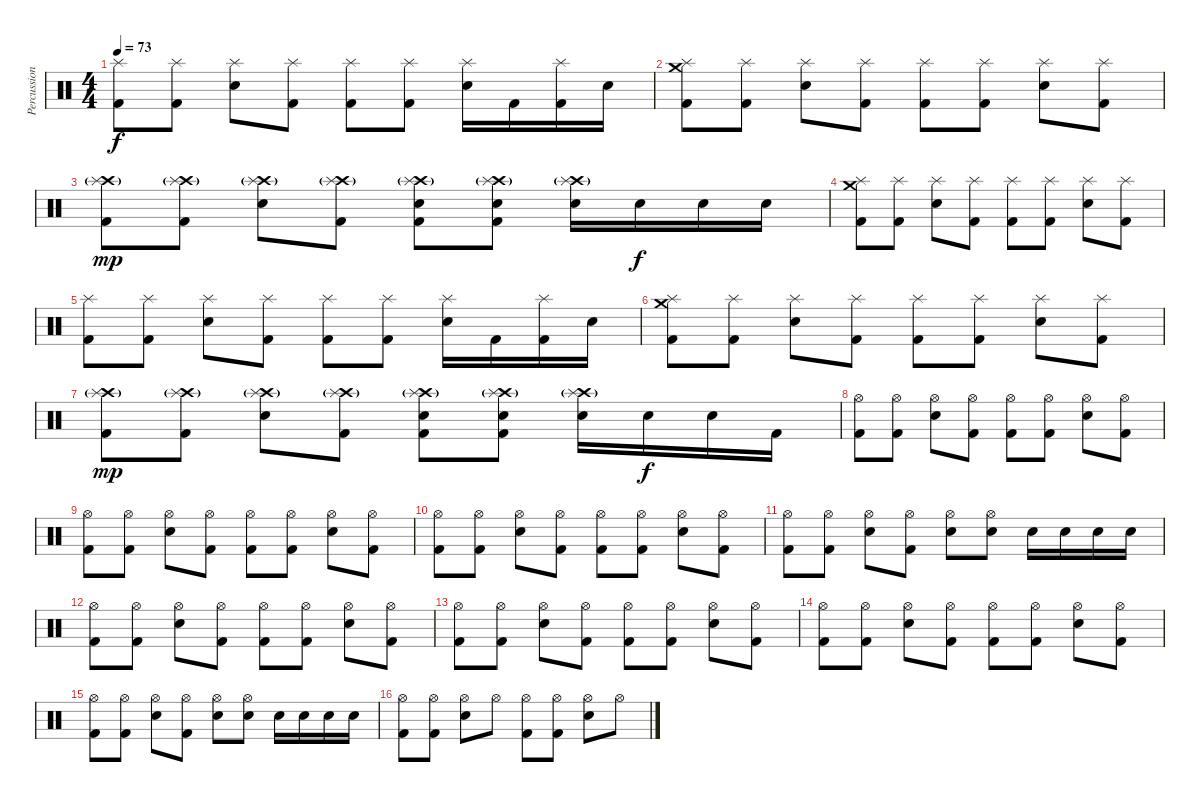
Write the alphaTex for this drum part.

\track ("Percussions" "Percussion") {instrument percussion}
\staff {score}
\articulation defaults
\ts (4 4)
\tempo 73
\clef neutral
\ks c
("Splash (hit)" "Kick (hit) 2").8{dy f} ("Splash (hit)" "Kick (hit) 2").8 ("Splash (hit)" "Snare (hit) 2").8 ("Splash (hit)" "Kick (hit) 2").8 ("Splash (hit)" "Kick (hit) 2").8 ("Splash (hit)" "Kick (hit) 2").8 ("Splash (hit)" "Snare (hit) 2").16 "Kick (hit) 2".16 ("Splash (hit)" "Kick (hit) 2").16 "Electric Snare (hit)".16 |
("Crash medium (hit)" "Splash (hit)" "Kick (hit) 2").8 ("Splash (hit)" "Kick (hit) 2").8 ("Splash (hit)" "Snare (hit) 2").8 ("Splash (hit)" "Kick (hit) 2").8 ("Splash (hit)" "Kick (hit) 2").8 ("Splash (hit)" "Kick (hit) 2").8 ("Splash (hit)" "Snare (hit) 2").8 ("Splash (hit)" "Kick (hit) 2").8 |
("Crash high (hit)"{g} "Splash (hit)" "Kick (hit) 2").8{dy mp} ("Crash high (hit)"{g} "Splash (hit)" "Kick (hit) 2").8 ("Crash high (hit)"{g} "Splash (hit)" "Snare (hit) 2").8 ("Crash high (hit)"{g} "Splash (hit)" "Kick (hit) 2").8 ("Crash high (hit)"{g} "Splash (hit)" "Electric Snare (hit)" "Kick (hit) 2").8 ("Crash high (hit)"{g} "Splash (hit)" "Electric Snare (hit)" "Kick (hit) 2").8 ("Crash high (hit)"{g} "Splash (hit)" "Electric Snare (hit)").16 "Electric Snare (hit)".16{dy f} "Electric Snare (hit)".16 "Electric Snare (hit)".16 |
("Crash medium (hit)" "Splash (hit)" "Kick (hit) 2").8 ("Splash (hit)" "Kick (hit) 2").8 ("Splash (hit)" "Snare (hit) 2").8 ("Splash (hit)" "Kick (hit) 2").8 ("Splash (hit)" "Kick (hit) 2").8 ("Splash (hit)" "Kick (hit) 2").8 ("Splash (hit)" "Snare (hit) 2").8 ("Splash (hit)" "Kick (hit) 2").8 |
("Splash (hit)" "Kick (hit) 2").8 ("Splash (hit)" "Kick (hit) 2").8 ("Splash (hit)" "Snare (hit) 2").8 ("Splash (hit)" "Kick (hit) 2").8 ("Splash (hit)" "Kick (hit) 2").8 ("Splash (hit)" "Kick (hit) 2").8 ("Splash (hit)" "Snare (hit) 2").16 "Kick (hit) 2".16 ("Splash (hit)" "Kick (hit) 2").16 "Electric Snare (hit)".16 |
("Crash medium (hit)" "Splash (hit)" "Kick (hit) 2").8 ("Splash (hit)" "Kick (hit) 2").8 ("Splash (hit)" "Snare (hit) 2").8 ("Splash (hit)" "Kick (hit) 2").8 ("Splash (hit)" "Kick (hit) 2").8 ("Splash (hit)" "Kick (hit) 2").8 ("Splash (hit)" "Snare (hit) 2").8 ("Splash (hit)" "Kick (hit) 2").8 |
("Crash high (hit)"{g} "Splash (hit)" "Kick (hit) 2").8{dy mp} ("Crash high (hit)"{g} "Splash (hit)" "Kick (hit) 2").8 ("Crash high (hit)"{g} "Splash (hit)" "Snare (hit) 2").8 ("Crash high (hit)"{g} "Splash (hit)" "Kick (hit) 2").8 ("Crash high (hit)"{g} "Splash (hit)" "Electric Snare (hit)" "Kick (hit) 2").8 ("Crash high (hit)"{g} "Splash (hit)" "Electric Snare (hit)" "Kick (hit) 2").8 ("Crash high (hit)"{g} "Splash (hit)" "Electric Snare (hit)").16 "Electric Snare (hit)".16{dy f} "Electric Snare (hit)".16 "Kick (hit) 2".16 |
("Hi-Hat (open)" "Kick (hit) 2").8 ("Hi-Hat (open)" "Kick (hit) 2").8 ("Hi-Hat (open)" "Snare (hit) 2").8 ("Hi-Hat (open)" "Kick (hit) 2").8 ("Hi-Hat (open)" "Kick (hit) 2").8 ("Hi-Hat (open)" "Kick (hit) 2").8 ("Hi-Hat (open)" "Snare (hit) 2").8 ("Hi-Hat (open)" "Kick (hit) 2").8 |
("Hi-Hat (open)" "Kick (hit) 2").8 ("Hi-Hat (open)" "Kick (hit) 2").8 ("Hi-Hat (open)" "Snare (hit) 2").8 ("Hi-Hat (open)" "Kick (hit) 2").8 ("Hi-Hat (open)" "Kick (hit) 2").8 ("Hi-Hat (open)" "Kick (hit) 2").8 ("Hi-Hat (open)" "Snare (hit) 2").8 ("Hi-Hat (open)" "Kick (hit) 2").8 |
("Hi-Hat (open)" "Kick (hit) 2").8 ("Hi-Hat (open)" "Kick (hit) 2").8 ("Hi-Hat (open)" "Snare (hit) 2").8 ("Hi-Hat (open)" "Kick (hit) 2").8 ("Hi-Hat (open)" "Kick (hit) 2").8 ("Hi-Hat (open)" "Kick (hit) 2").8 ("Hi-Hat (open)" "Snare (hit) 2").8 ("Hi-Hat (open)" "Kick (hit) 2").8 |
("Hi-Hat (open)" "Kick (hit) 2").8 ("Hi-Hat (open)" "Kick (hit) 2").8 ("Hi-Hat (open)" "Snare (hit) 2").8 ("Hi-Hat (open)" "Kick (hit) 2").8 ("Hi-Hat (open)" "Electric Snare (hit)").8 ("Hi-Hat (open)" "Electric Snare (hit)").8 "Electric Snare (hit)".16 "Electric Snare (hit)".16 "Electric Snare (hit)".16 "Electric Snare (hit)".16 |
("Hi-Hat (open)" "Kick (hit) 2").8 ("Hi-Hat (open)" "Kick (hit) 2").8 ("Hi-Hat (open)" "Snare (hit) 2").8 ("Hi-Hat (open)" "Kick (hit) 2").8 ("Hi-Hat (open)" "Kick (hit) 2").8 ("Hi-Hat (open)" "Kick (hit) 2").8 ("Hi-Hat (open)" "Snare (hit) 2").8 ("Hi-Hat (open)" "Kick (hit) 2").8 |
("Hi-Hat (open)" "Kick (hit) 2").8 ("Hi-Hat (open)" "Kick (hit) 2").8 ("Hi-Hat (open)" "Snare (hit) 2").8 ("Hi-Hat (open)" "Kick (hit) 2").8 ("Hi-Hat (open)" "Kick (hit) 2").8 ("Hi-Hat (open)" "Kick (hit) 2").8 ("Hi-Hat (open)" "Snare (hit) 2").8 ("Hi-Hat (open)" "Kick (hit) 2").8 |
("Hi-Hat (open)" "Kick (hit) 2").8 ("Hi-Hat (open)" "Kick (hit) 2").8 ("Hi-Hat (open)" "Snare (hit) 2").8 ("Hi-Hat (open)" "Kick (hit) 2").8 ("Hi-Hat (open)" "Kick (hit) 2").8 ("Hi-Hat (open)" "Kick (hit) 2").8 ("Hi-Hat (open)" "Snare (hit) 2").8 ("Hi-Hat (open)" "Kick (hit) 2").8 |
("Hi-Hat (open)" "Kick (hit) 2").8 ("Hi-Hat (open)" "Kick (hit) 2").8 ("Hi-Hat (open)" "Snare (hit) 2").8 ("Hi-Hat (open)" "Kick (hit) 2").8 ("Hi-Hat (open)" "Electric Snare (hit)").8 ("Hi-Hat (open)" "Electric Snare (hit)").8 "Electric Snare (hit)".16 "Electric Snare (hit)".16 "Electric Snare (hit)".16 "Electric Snare (hit)".16 |
("Hi-Hat (open)" "Kick (hit) 2").8 ("Hi-Hat (open)" "Kick (hit) 2").8 ("Hi-Hat (open)" "Snare (hit) 2").8 "Hi-Hat (open)".8 ("Hi-Hat (open)" "Kick (hit) 2").8 ("Hi-Hat (open)" "Kick (hit) 2").8 ("Hi-Hat (open)" "Snare (hit) 2").8 "Hi-Hat (open)".8
